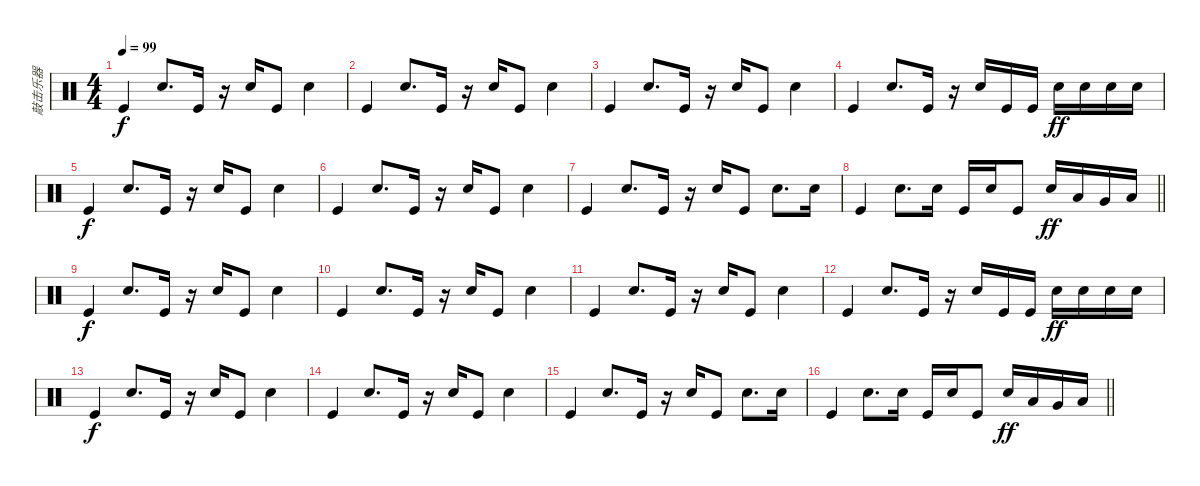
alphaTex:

\track ("敲击乐器" "敲击乐器") {instrument percussion}
\staff {score}
\articulation defaults
\ts (4 4)
\tempo 99
\clef neutral
\ks c "Kick (hit)".4{dy f} "Snare (hit) 2".8{d} "Kick (hit)".16
r.16 "Snare (hit) 2".16 "Kick (hit)".8 "Snare (hit) 2".4 |
"Kick (hit)".4 "Snare (hit) 2".8{d} "Kick (hit)".16 r.16 "Snare (hit) 2".16 "Kick (hit)".8 "Snare (hit) 2".4 |
"Kick (hit)".4 "Snare (hit) 2".8{d} "Kick (hit)".16 r.16 "Snare (hit) 2".16 "Kick (hit)".8 "Snare (hit) 2".4 |
"Kick (hit)".4 "Snare (hit) 2".8{d} "Kick (hit)".16 r.16 "Snare (hit) 2".16 "Kick (hit)".16 "Kick (hit)".16 "Snare (hit) 2".16{dy ff} "Snare (hit) 2".16 "Snare (hit) 2".16 "Snare (hit) 2".16 |
"Kick (hit)".4{dy f} "Snare (hit) 2".8{d} "Kick (hit)".16 r.16 "Snare (hit) 2".16 "Kick (hit)".8 "Snare (hit) 2".4 |
"Kick (hit)".4 "Snare (hit) 2".8{d} "Kick (hit)".16 r.16 "Snare (hit) 2".16 "Kick (hit)".8 "Snare (hit) 2".4 |
"Kick (hit)".4 "Snare (hit) 2".8{d} "Kick (hit)".16 r.16 "Snare (hit) 2".16 "Kick (hit)".8 "Snare (hit) 2".8{d} "Snare (hit) 2".16 |
\barLineRight lightlight "Kick (hit)".4 "Snare (hit) 2".8{d} "Snare (hit) 2".16 "Kick (hit)".16 "Snare (hit) 2".16 "Kick (hit)".8 "Snare (hit) 2".16{dy ff} "Low Tom (hit)".16 "Very Low Tom (hit)".16 "Low Floor Tom (hit)".16
|
"Kick (hit)".4{dy f} "Snare (hit) 2".8{d} "Kick (hit)".16 r.16 "Snare (hit) 2".16 "Kick (hit)".8 "Snare (hit) 2".4 |
"Kick (hit)".4 "Snare (hit) 2".8{d} "Kick (hit)".16 r.16 "Snare (hit) 2".16 "Kick (hit)".8 "Snare (hit) 2".4 |
"Kick (hit)".4 "Snare (hit) 2".8{d} "Kick (hit)".16 r.16 "Snare (hit) 2".16 "Kick (hit)".8 "Snare (hit) 2".4 |
"Kick (hit)".4 "Snare (hit) 2".8{d} "Kick (hit)".16 r.16 "Snare (hit) 2".16 "Kick (hit)".16 "Kick (hit)".16 "Snare (hit) 2".16{dy ff} "Snare (hit) 2".16 "Snare (hit) 2".16 "Snare (hit) 2".16 |
"Kick (hit)".4{dy f} "Snare (hit) 2".8{d} "Kick (hit)".16 r.16 "Snare (hit) 2".16 "Kick (hit)".8 "Snare (hit) 2".4 |
"Kick (hit)".4 "Snare (hit) 2".8{d} "Kick (hit)".16 r.16 "Snare (hit) 2".16 "Kick (hit)".8 "Snare (hit) 2".4 |
"Kick (hit)".4 "Snare (hit) 2".8{d} "Kick (hit)".16 r.16 "Snare (hit) 2".16 "Kick (hit)".8 "Snare (hit) 2".8{d} "Snare (hit) 2".16 |
\barLineRight lightlight "Kick (hit)".4 "Snare (hit) 2".8{d} "Snare (hit) 2".16 "Kick (hit)".16 "Snare (hit) 2".16 "Kick (hit)".8 "Snare (hit) 2".16{dy ff} "Low Tom (hit)".16 "Very Low Tom (hit)".16 "Low Floor Tom (hit)".16
